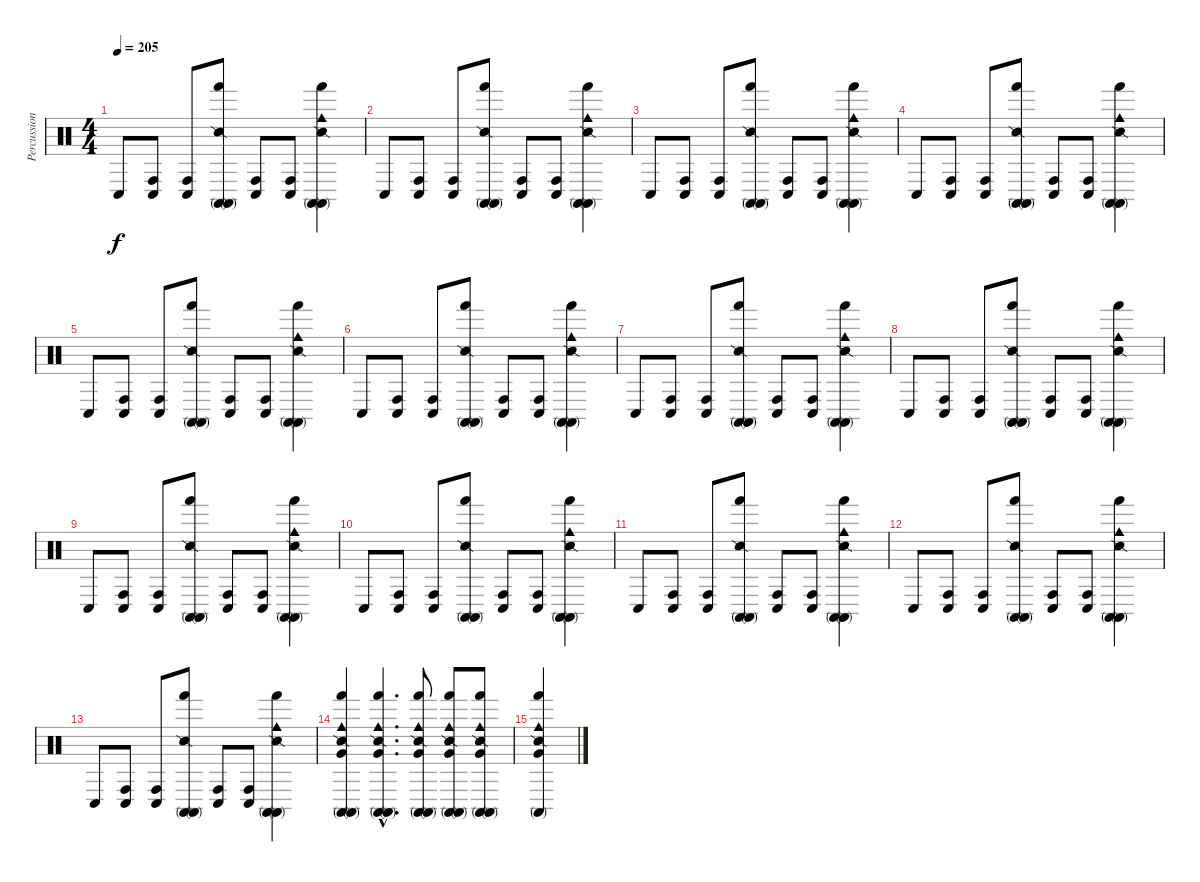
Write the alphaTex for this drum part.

\track ("Percussion" "Percussion") {instrument percussion}
\staff {score}
\articulation defaults
\ts (4 4)
\tempo 205
\clef neutral
\ks c "Conga low (hit)".8{dy f}
("Conga high (hit)" "Conga low (hit)").8 ("Conga high (hit)" "Conga low (hit)").8 ("Snare (side stick) 2" "Hand (hit)" "Conga high (mute)" "Conga high (mute)").8 ("Conga high (hit)" "Conga low (hit)").8 ("Conga high (hit)" "Conga low (hit)").8 ("Snare (side stick) 2" "Hand (hit)" "Cowbell medium (hit)" "Conga high (mute)" "Conga high (mute)").4 |
"Conga low (hit)".8 ("Conga high (hit)" "Conga low (hit)").8 ("Conga high (hit)" "Conga low (hit)").8 ("Snare (side stick) 2" "Hand (hit)" "Conga high (mute)" "Conga high (mute)").8 ("Conga high (hit)" "Conga low (hit)").8 ("Conga high (hit)" "Conga low (hit)").8 ("Snare (side stick) 2" "Hand (hit)" "Cowbell medium (hit)" "Conga high (mute)" "Conga high (mute)").4 |
"Conga low (hit)".8 ("Conga high (hit)" "Conga low (hit)").8 ("Conga high (hit)" "Conga low (hit)").8 ("Snare (side stick) 2" "Hand (hit)" "Conga high (mute)" "Conga high (mute)").8 ("Conga high (hit)" "Conga low (hit)").8 ("Conga high (hit)" "Conga low (hit)").8 ("Snare (side stick) 2" "Hand (hit)" "Cowbell medium (hit)" "Conga high (mute)" "Conga high (mute)").4 |
"Conga low (hit)".8 ("Conga high (hit)" "Conga low (hit)").8 ("Conga high (hit)" "Conga low (hit)").8 ("Snare (side stick) 2" "Hand (hit)" "Conga high (mute)" "Conga high (mute)").8 ("Conga high (hit)" "Conga low (hit)").8 ("Conga high (hit)" "Conga low (hit)").8 ("Snare (side stick) 2" "Hand (hit)" "Cowbell medium (hit)" "Conga high (mute)" "Conga high (mute)").4 |
"Conga low (hit)".8 ("Conga high (hit)" "Conga low (hit)").8 ("Conga high (hit)" "Conga low (hit)").8 ("Snare (side stick) 2" "Hand (hit)" "Conga high (mute)" "Conga high (mute)").8 ("Conga high (hit)" "Conga low (hit)").8 ("Conga high (hit)" "Conga low (hit)").8 ("Snare (side stick) 2" "Hand (hit)" "Cowbell medium (hit)" "Conga high (mute)" "Conga high (mute)").4 |
"Conga low (hit)".8 ("Conga high (hit)" "Conga low (hit)").8 ("Conga high (hit)" "Conga low (hit)").8 ("Snare (side stick) 2" "Hand (hit)" "Conga high (mute)" "Conga high (mute)").8 ("Conga high (hit)" "Conga low (hit)").8 ("Conga high (hit)" "Conga low (hit)").8 ("Snare (side stick) 2" "Hand (hit)" "Cowbell medium (hit)" "Conga high (mute)" "Conga high (mute)").4 |
"Conga low (hit)".8 ("Conga high (hit)" "Conga low (hit)").8 ("Conga high (hit)" "Conga low (hit)").8 ("Snare (side stick) 2" "Hand (hit)" "Conga high (mute)" "Conga high (mute)").8 ("Conga high (hit)" "Conga low (hit)").8 ("Conga high (hit)" "Conga low (hit)").8 ("Snare (side stick) 2" "Hand (hit)" "Cowbell medium (hit)" "Conga high (mute)" "Conga high (mute)").4 |
"Conga low (hit)".8 ("Conga high (hit)" "Conga low (hit)").8 ("Conga high (hit)" "Conga low (hit)").8 ("Snare (side stick) 2" "Hand (hit)" "Conga high (mute)" "Conga high (mute)").8 ("Conga high (hit)" "Conga low (hit)").8 ("Conga high (hit)" "Conga low (hit)").8 ("Snare (side stick) 2" "Hand (hit)" "Cowbell medium (hit)" "Conga high (mute)" "Conga high (mute)").4 |
"Conga low (hit)".8 ("Conga high (hit)" "Conga low (hit)").8 ("Conga high (hit)" "Conga low (hit)").8 ("Snare (side stick) 2" "Hand (hit)" "Conga high (mute)" "Conga high (mute)").8 ("Conga high (hit)" "Conga low (hit)").8 ("Conga high (hit)" "Conga low (hit)").8 ("Snare (side stick) 2" "Hand (hit)" "Cowbell medium (hit)" "Conga high (mute)" "Conga high (mute)").4 |
"Conga low (hit)".8 ("Conga high (hit)" "Conga low (hit)").8 ("Conga high (hit)" "Conga low (hit)").8 ("Snare (side stick) 2" "Hand (hit)" "Conga high (mute)" "Conga high (mute)").8 ("Conga high (hit)" "Conga low (hit)").8 ("Conga high (hit)" "Conga low (hit)").8 ("Snare (side stick) 2" "Hand (hit)" "Cowbell medium (hit)" "Conga high (mute)" "Conga high (mute)").4 |
"Conga low (hit)".8 ("Conga high (hit)" "Conga low (hit)").8 ("Conga high (hit)" "Conga low (hit)").8 ("Snare (side stick) 2" "Hand (hit)" "Conga high (mute)" "Conga high (mute)").8 ("Conga high (hit)" "Conga low (hit)").8 ("Conga high (hit)" "Conga low (hit)").8 ("Snare (side stick) 2" "Hand (hit)" "Cowbell medium (hit)" "Conga high (mute)" "Conga high (mute)").4 |
"Conga low (hit)".8 ("Conga high (hit)" "Conga low (hit)").8 ("Conga high (hit)" "Conga low (hit)").8 ("Snare (side stick) 2" "Hand (hit)" "Conga high (mute)" "Conga high (mute)").8 ("Conga high (hit)" "Conga low (hit)").8 ("Conga high (hit)" "Conga low (hit)").8 ("Snare (side stick) 2" "Hand (hit)" "Cowbell medium (hit)" "Conga high (mute)" "Conga high (mute)").4 |
"Conga low (hit)".8 ("Conga high (hit)" "Conga low (hit)").8 ("Conga high (hit)" "Conga low (hit)").8 ("Snare (side stick) 2" "Hand (hit)" "Conga high (mute)" "Conga high (mute)").8 ("Conga high (hit)" "Conga low (hit)").8 ("Conga high (hit)" "Conga low (hit)").8 ("Snare (side stick) 2" "Hand (hit)" "Cowbell medium (hit)" "Conga high (mute)" "Conga high (mute)").4 |
("Snare (side stick) 2" "Hand (hit)" "Cowbell medium (hit)" "Conga high (mute)" "Conga high (mute)" "Very Low Tom (hit)").4 ("Snare (side stick) 2"{hac} "Hand (hit)"{hac} "Cowbell medium (hit)"{hac} "Conga high (mute)"{hac} "Conga high (mute)"{hac} "Very Low Tom (hit)"{hac}).4{d} ("Snare (side stick) 2" "Hand (hit)" "Cowbell medium (hit)" "Conga high (mute)" "Conga high (mute)" "Very Low Tom (hit)").8 ("Snare (side stick) 2" "Hand (hit)" "Cowbell medium (hit)" "Conga high (mute)" "Conga high (mute)" "Very Low Tom (hit)").8 ("Snare (side stick) 2" "Hand (hit)" "Cowbell medium (hit)" "Conga high (mute)" "Conga high (mute)" "Very Low Tom (hit)").8 |
("Snare (side stick) 2" "Hand (hit)" "Cowbell medium (hit)" "Conga high (mute)" "Very Low Tom (hit)").4
